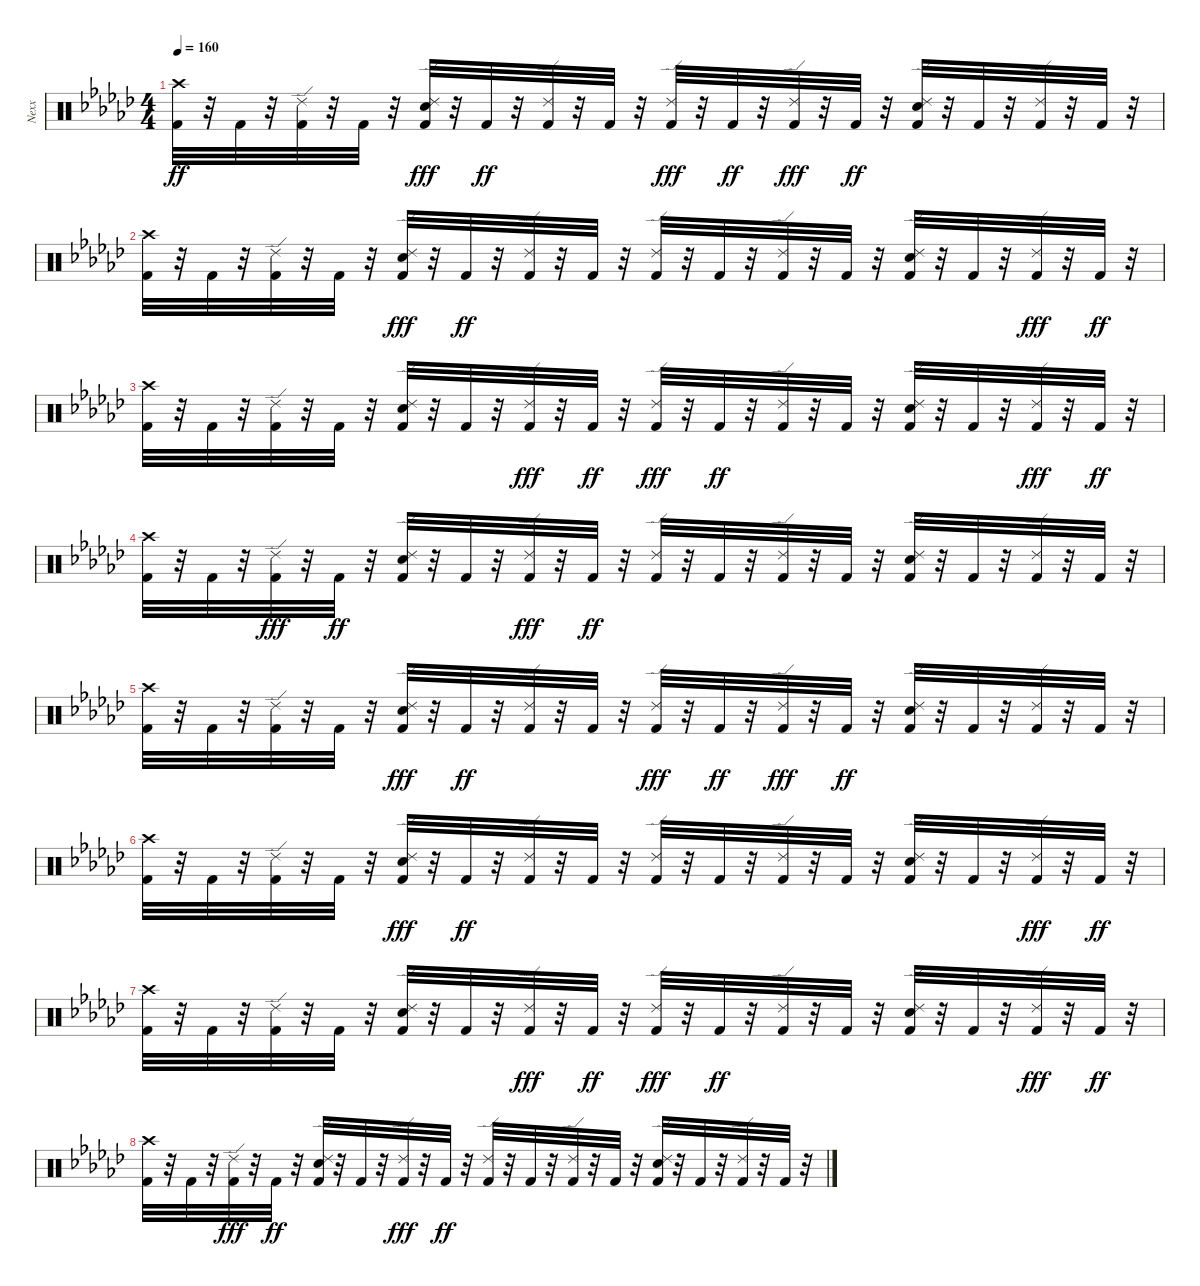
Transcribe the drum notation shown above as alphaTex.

\track ("Nexx" "Nexx") {instrument percussion}
\staff {score}
\articulation defaults
\ts (4 4)
\tempo 160
\clef neutral
\ks ebminor
("Crash high (hit)" "Kick (hit) 2").32{dy ff} r.32 "Kick (hit) 2".32 r.32 ("Ride (edge) 2" "Kick (hit) 2").32 r.32 "Kick (hit) 2".32 r.32 ("Kick (hit) 2" "Electric Snare (hit)" "Ride (edge) 2").32{dy fff} r.32 "Kick (hit) 2".32{dy ff} r.32 ("Ride (edge) 2" "Kick (hit) 2").32 r.32 "Kick (hit) 2".32 r.32 ("Kick (hit) 2" "Ride (edge) 2").32{dy fff} r.32 "Kick (hit) 2".32{dy ff} r.32 ("Kick (hit) 2" "Ride (edge) 2").32{dy fff} r.32 "Kick (hit) 2".32{dy ff} r.32 ("Ride (edge) 2" "Electric Snare (hit)" "Kick (hit) 2").32 r.32 "Kick (hit) 2".32 r.32 ("Ride (edge) 2" "Kick (hit) 2").32 r.32 "Kick (hit) 2".32 r.32 |
("Kick (hit) 2" "Crash high (hit)").32 r.32 "Kick (hit) 2".32 r.32 ("Ride (edge) 2" "Kick (hit) 2").32 r.32 "Kick (hit) 2".32 r.32 ("Electric Snare (hit)" "Kick (hit) 2" "Ride (edge) 2").32{dy fff} r.32 "Kick (hit) 2".32{dy ff} r.32 ("Ride (edge) 2" "Kick (hit) 2").32 r.32 "Kick (hit) 2".32 r.32 ("Ride (edge) 2" "Kick (hit) 2").32 r.32 "Kick (hit) 2".32 r.32 ("Ride (edge) 2" "Kick (hit) 2").32 r.32 "Kick (hit) 2".32 r.32 ("Kick (hit) 2" "Ride (edge) 2" "Electric Snare (hit)").32 r.32 "Kick (hit) 2".32 r.32 ("Kick (hit) 2" "Ride (edge) 2").32{dy fff} r.32 "Kick (hit) 2".32{dy ff} r.32 |
("Crash high (hit)" "Kick (hit) 2").32{volume 13} r.32 "Kick (hit) 2".32 r.32 ("Ride (edge) 2" "Kick (hit) 2").32 r.32 "Kick (hit) 2".32 r.32 ("Kick (hit) 2" "Ride (edge) 2" "Electric Snare (hit)").32 r.32 "Kick (hit) 2".32 r.32 ("Kick (hit) 2" "Ride (edge) 2").32{dy fff} r.32 "Kick (hit) 2".32{dy ff} r.32 ("Kick (hit) 2" "Ride (edge) 2").32{dy fff} r.32 "Kick (hit) 2".32{dy ff} r.32 ("Ride (edge) 2" "Kick (hit) 2").32 r.32 "Kick (hit) 2".32 r.32 ("Electric Snare (hit)" "Ride (edge) 2" "Kick (hit) 2").32 r.32 "Kick (hit) 2".32 r.32 ("Kick (hit) 2" "Ride (edge) 2").32{dy fff} r.32 "Kick (hit) 2".32{dy ff} r.32 |
("Kick (hit) 2" "Crash high (hit)").32 r.32 "Kick (hit) 2".32 r.32 ("Kick (hit) 2" "Ride (edge) 2").32{dy fff} r.32 "Kick (hit) 2".32{dy ff} r.32 ("Electric Snare (hit)" "Ride (edge) 2" "Kick (hit) 2").32 r.32 "Kick (hit) 2".32 r.32 ("Kick (hit) 2" "Ride (edge) 2").32{dy fff} r.32 "Kick (hit) 2".32{dy ff} r.32 ("Ride (edge) 2" "Kick (hit) 2").32 r.32 "Kick (hit) 2".32 r.32 ("Ride (edge) 2" "Kick (hit) 2").32 r.32 "Kick (hit) 2".32 r.32 ("Kick (hit) 2" "Ride (edge) 2" "Electric Snare (hit)").32 r.32 "Kick (hit) 2".32 r.32 ("Ride (edge) 2" "Kick (hit) 2").32 r.32 "Kick (hit) 2".32 r.32 |
("Crash high (hit)" "Kick (hit) 2").32 r.32 "Kick (hit) 2".32 r.32 ("Ride (edge) 2" "Kick (hit) 2").32 r.32 "Kick (hit) 2".32 r.32 ("Kick (hit) 2" "Electric Snare (hit)" "Ride (edge) 2").32{dy fff} r.32 "Kick (hit) 2".32{dy ff} r.32 ("Ride (edge) 2" "Kick (hit) 2").32 r.32 "Kick (hit) 2".32 r.32 ("Kick (hit) 2" "Ride (edge) 2").32{dy fff} r.32 "Kick (hit) 2".32{dy ff} r.32 ("Kick (hit) 2" "Ride (edge) 2").32{dy fff} r.32 "Kick (hit) 2".32{dy ff} r.32 ("Ride (edge) 2" "Electric Snare (hit)" "Kick (hit) 2").32 r.32 "Kick (hit) 2".32 r.32 ("Ride (edge) 2" "Kick (hit) 2").32 r.32 "Kick (hit) 2".32 r.32 |
("Kick (hit) 2" "Crash high (hit)").32 r.32 "Kick (hit) 2".32 r.32 ("Ride (edge) 2" "Kick (hit) 2").32 r.32 "Kick (hit) 2".32 r.32 ("Electric Snare (hit)" "Kick (hit) 2" "Ride (edge) 2").32{dy fff} r.32 "Kick (hit) 2".32{dy ff} r.32 ("Ride (edge) 2" "Kick (hit) 2").32 r.32 "Kick (hit) 2".32 r.32 ("Ride (edge) 2" "Kick (hit) 2").32 r.32 "Kick (hit) 2".32 r.32 ("Ride (edge) 2" "Kick (hit) 2").32 r.32 "Kick (hit) 2".32 r.32 ("Kick (hit) 2" "Ride (edge) 2" "Electric Snare (hit)").32 r.32 "Kick (hit) 2".32 r.32 ("Kick (hit) 2" "Ride (edge) 2").32{dy fff} r.32 "Kick (hit) 2".32{dy ff} r.32 |
("Crash high (hit)" "Kick (hit) 2").32 r.32 "Kick (hit) 2".32 r.32 ("Ride (edge) 2" "Kick (hit) 2").32 r.32 "Kick (hit) 2".32 r.32 ("Kick (hit) 2" "Ride (edge) 2" "Electric Snare (hit)").32 r.32 "Kick (hit) 2".32 r.32 ("Kick (hit) 2" "Ride (edge) 2").32{dy fff} r.32 "Kick (hit) 2".32{dy ff} r.32 ("Kick (hit) 2" "Ride (edge) 2").32{dy fff} r.32 "Kick (hit) 2".32{dy ff} r.32 ("Ride (edge) 2" "Kick (hit) 2").32 r.32 "Kick (hit) 2".32 r.32 ("Electric Snare (hit)" "Ride (edge) 2" "Kick (hit) 2").32 r.32 "Kick (hit) 2".32 r.32 ("Kick (hit) 2" "Ride (edge) 2").32{dy fff} r.32 "Kick (hit) 2".32{dy ff} r.32 |
("Kick (hit) 2" "Crash high (hit)").32 r.32 "Kick (hit) 2".32 r.32 ("Kick (hit) 2" "Ride (edge) 2").32{dy fff} r.32 "Kick (hit) 2".32{dy ff} r.32 ("Electric Snare (hit)" "Ride (edge) 2" "Kick (hit) 2").32 r.32 "Kick (hit) 2".32 r.32 ("Kick (hit) 2" "Ride (edge) 2").32{dy fff} r.32 "Kick (hit) 2".32{dy ff} r.32 ("Ride (edge) 2" "Kick (hit) 2").32 r.32 "Kick (hit) 2".32 r.32 ("Ride (edge) 2" "Kick (hit) 2").32 r.32 "Kick (hit) 2".32 r.32 ("Kick (hit) 2" "Ride (edge) 2" "Electric Snare (hit)").32 r.32 "Kick (hit) 2".32 r.32 ("Ride (edge) 2" "Kick (hit) 2").32 r.32 "Kick (hit) 2".32 r.32
